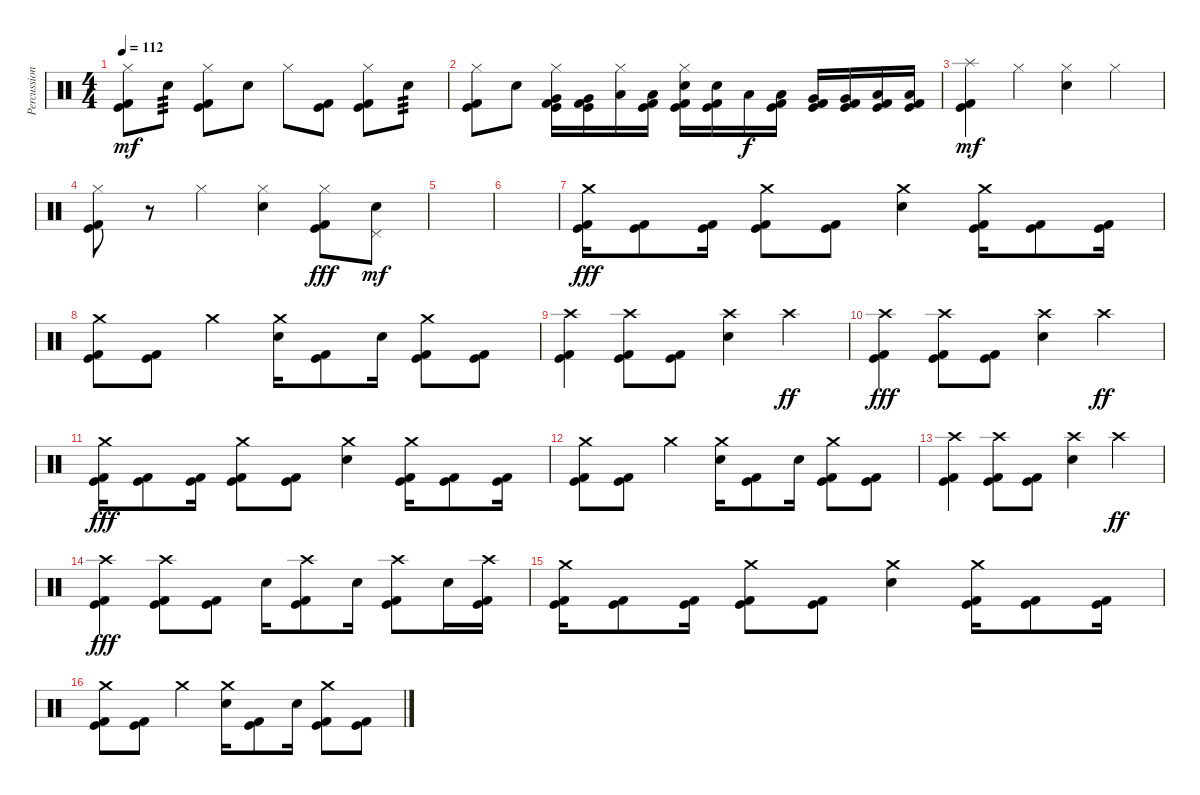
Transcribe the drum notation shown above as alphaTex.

\track ("Percussion" "Percussion") {instrument percussion}
\staff {score}
\articulation defaults
\ts (4 4)
\tempo 112
\clef neutral
\ks c
("Hi-Hat (closed)" "Kick (hit)" "Kick (hit) 2").8{dy mf} "Electric Snare (hit)".8{tp 3} ("Hi-Hat (closed)" "Kick (hit)" "Kick (hit) 2").8 "Electric Snare (hit)".8 "Hi-Hat (closed)".8 ("Kick (hit)" "Kick (hit) 2").8 ("Hi-Hat (closed)" "Kick (hit)" "Kick (hit) 2").8 "Electric Snare (hit)".8{tp 3} |
("Hi-Hat (closed)" "Kick (hit)" "Kick (hit) 2").8 "Electric Snare (hit)".8 ("Hi-Hat (closed)" "Very Low Tom (hit)" "Kick (hit)" "Kick (hit) 2").16 ("Very Low Tom (hit)" "Kick (hit)" "Kick (hit) 2").16 ("Hi-Hat (closed)" "Low Tom (hit)").16 ("Low Tom (hit)" "Kick (hit)" "Kick (hit) 2").16 ("Hi-Hat (closed)" "Electric Snare (hit)" "Kick (hit)" "Kick (hit) 2").16 ("Electric Snare (hit)" "Kick (hit)" "Kick (hit) 2").16 "Low Tom (hit)".16{dy f} ("Low Tom (hit)" "Kick (hit)" "Kick (hit) 2").16 ("Very Low Tom (hit)" "Kick (hit)" "Kick (hit) 2").16 ("Very Low Tom (hit)" "Kick (hit)" "Kick (hit) 2").16 ("Low Floor Tom (hit)" "Kick (hit)" "Kick (hit) 2").16 ("Low Floor Tom (hit)" "Kick (hit)" "Kick (hit) 2").16 |
("Splash (hit)" "Kick (hit)" "Kick (hit) 2").4{dy mf} "Hi-Hat (closed)".4 ("Hi-Hat (closed)" "Electric Snare (hit)").4 "Hi-Hat (closed)".4 |
("Hi-Hat (closed)" "Kick (hit)" "Kick (hit) 2").8 r.8 "Hi-Hat (closed)".4 ("Hi-Hat (closed)" "Electric Snare (hit)").4 ("Hi-Hat (closed)" "Kick (hit)" "Kick (hit) 2").8{dy fff} ("Pedal Hi-Hat (hit)" "Electric Snare (hit)").8{dy mf} |
|
|
("Crash medium (hit)" "Kick (hit)" "Kick (hit) 2").16{dy fff} ("Kick (hit)" "Kick (hit) 2").8 ("Kick (hit)" "Kick (hit) 2").16 ("Crash medium (hit)" "Kick (hit)" "Kick (hit) 2").8 ("Kick (hit)" "Kick (hit) 2").8 ("Crash medium (hit)" "Electric Snare (hit)").4 ("Crash medium (hit)" "Kick (hit)" "Kick (hit) 2").16 ("Kick (hit)" "Kick (hit) 2").8 ("Kick (hit)" "Kick (hit) 2").16 |
("Crash medium (hit)" "Kick (hit)" "Kick (hit) 2").8 ("Kick (hit)" "Kick (hit) 2").8 "Crash medium (hit)".4 ("Crash medium (hit)" "Electric Snare (hit)").16 ("Kick (hit)" "Kick (hit) 2").8 "Electric Snare (hit)".16 ("Crash medium (hit)" "Kick (hit)" "Kick (hit) 2").8 ("Kick (hit)" "Kick (hit) 2").8 |
("Crash high (hit)" "Kick (hit)" "Kick (hit) 2").4 ("Crash high (hit)" "Kick (hit)" "Kick (hit) 2").8 ("Kick (hit)" "Kick (hit) 2").8 ("Crash high (hit)" "Electric Snare (hit)").4 "Crash high (hit)".4{dy ff} |
("Crash high (hit)" "Kick (hit)" "Kick (hit) 2").4{dy fff} ("Crash high (hit)" "Kick (hit)" "Kick (hit) 2").8 ("Kick (hit)" "Kick (hit) 2").8 ("Crash high (hit)" "Electric Snare (hit)").4 "Crash high (hit)".4{dy ff} |
("Crash medium (hit)" "Kick (hit)" "Kick (hit) 2").16{dy fff} ("Kick (hit)" "Kick (hit) 2").8 ("Kick (hit)" "Kick (hit) 2").16 ("Crash medium (hit)" "Kick (hit)" "Kick (hit) 2").8 ("Kick (hit)" "Kick (hit) 2").8 ("Crash medium (hit)" "Electric Snare (hit)").4 ("Crash medium (hit)" "Kick (hit)" "Kick (hit) 2").16 ("Kick (hit)" "Kick (hit) 2").8 ("Kick (hit)" "Kick (hit) 2").16 |
("Crash medium (hit)" "Kick (hit)" "Kick (hit) 2").8 ("Kick (hit)" "Kick (hit) 2").8 "Crash medium (hit)".4 ("Crash medium (hit)" "Electric Snare (hit)").16 ("Kick (hit)" "Kick (hit) 2").8 "Electric Snare (hit)".16 ("Crash medium (hit)" "Kick (hit)" "Kick (hit) 2").8 ("Kick (hit)" "Kick (hit) 2").8 |
("Crash high (hit)" "Kick (hit)" "Kick (hit) 2").4 ("Crash high (hit)" "Kick (hit)" "Kick (hit) 2").8 ("Kick (hit)" "Kick (hit) 2").8 ("Crash high (hit)" "Electric Snare (hit)").4 "Crash high (hit)".4{dy ff} |
("Crash high (hit)" "Kick (hit)" "Kick (hit) 2").4{dy fff} ("Crash high (hit)" "Kick (hit)" "Kick (hit) 2").8 ("Kick (hit)" "Kick (hit) 2").8 "Electric Snare (hit)".16 ("Crash high (hit)" "Kick (hit)" "Kick (hit) 2").8 "Electric Snare (hit)".16 ("Crash high (hit)" "Kick (hit)" "Kick (hit) 2").8 "Electric Snare (hit)".16 ("Crash high (hit)" "Kick (hit)" "Kick (hit) 2").16 |
("Crash medium (hit)" "Kick (hit)" "Kick (hit) 2").16 ("Kick (hit)" "Kick (hit) 2").8 ("Kick (hit)" "Kick (hit) 2").16 ("Crash medium (hit)" "Kick (hit)" "Kick (hit) 2").8 ("Kick (hit)" "Kick (hit) 2").8 ("Crash medium (hit)" "Electric Snare (hit)").4 ("Crash medium (hit)" "Kick (hit)" "Kick (hit) 2").16 ("Kick (hit)" "Kick (hit) 2").8 ("Kick (hit)" "Kick (hit) 2").16 |
("Crash medium (hit)" "Kick (hit)" "Kick (hit) 2").8 ("Kick (hit)" "Kick (hit) 2").8 "Crash medium (hit)".4 ("Crash medium (hit)" "Electric Snare (hit)").16 ("Kick (hit)" "Kick (hit) 2").8 "Electric Snare (hit)".16 ("Crash medium (hit)" "Kick (hit)" "Kick (hit) 2").8 ("Kick (hit)" "Kick (hit) 2").8
